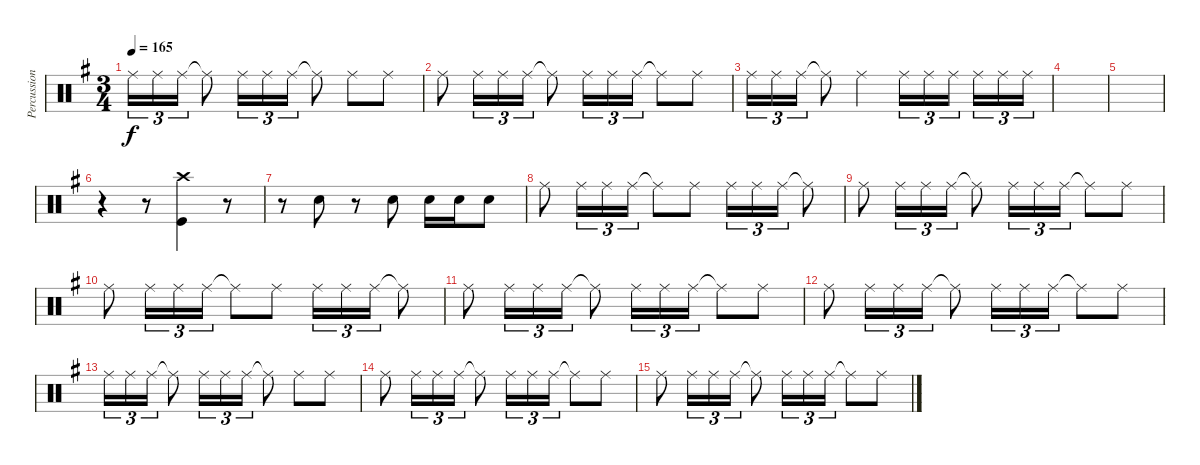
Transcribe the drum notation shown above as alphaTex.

\track ("Percussion" "Percussion") {instrument percussion}
\staff {score}
\articulation defaults
\ts (3 4)
\tempo 165
\clef neutral
\ks g "Ride (middle)".16{tu (3 2) dy f} "Ride (middle)".16{tu (3 2)} "Ride (middle)".16{tu (3 2)} "Ride (middle)"{t}.8 "Ride (middle)".16{tu (3 2)} "Ride (middle)".16{tu (3 2)} "Ride (middle)".16{tu (3 2)} "Ride (middle)"{t}.8 "Ride (middle)".8 "Ride (middle)".8
|
"Ride (middle)".8 "Ride (middle)".16{tu (3 2)} "Ride (middle)".16{tu (3 2)} "Ride (middle)".16{tu (3 2)} "Ride (middle)"{t}.8 "Ride (middle)".16{tu (3 2)} "Ride (middle)".16{tu (3 2)} "Ride (middle)".16{tu (3 2)} "Ride (middle)"{t}.8 "Ride (middle)".8 |
"Ride (middle)".16{tu (3 2)} "Ride (middle)".16{tu (3 2)} "Ride (middle)".16{tu (3 2)} "Ride (middle)"{t}.8 "Ride (middle)".4 "Ride (middle)".16{tu (3 2)} "Ride (middle)".16{tu (3 2)} "Ride (middle)".16{tu (3 2) beam splitsecondary} "Ride (middle)".16{tu (3 2)} "Ride (middle)".16{tu (3 2)} "Ride (middle)".16{tu (3 2)} |
|
|
r.4 r.8 ("Crash high (hit)" "Kick (hit)").4 r.8 |
r.8 "Snare (hit) 2".8 r.8 "Snare (hit) 2".8 "Snare (hit) 2".16 "Snare (hit) 2".16 "Snare (hit) 2".8 |
"Ride (middle)".8 "Ride (middle)".16{tu (3 2)} "Ride (middle)".16{tu (3 2)} "Ride (middle)".16{tu (3 2)} "Ride (middle)"{t}.8 "Ride (middle)".8 "Ride (middle)".16{tu (3 2)} "Ride (middle)".16{tu (3 2)} "Ride (middle)".16{tu (3 2)} "Ride (middle)"{t}.8 |
"Ride (middle)".8 "Ride (middle)".16{tu (3 2)} "Ride (middle)".16{tu (3 2)} "Ride (middle)".16{tu (3 2)} "Ride (middle)"{t}.8 "Ride (middle)".16{tu (3 2)} "Ride (middle)".16{tu (3 2)} "Ride (middle)".16{tu (3 2)} "Ride (middle)"{t}.8 "Ride (middle)".8 |
"Ride (middle)".8 "Ride (middle)".16{tu (3 2)} "Ride (middle)".16{tu (3 2)} "Ride (middle)".16{tu (3 2)} "Ride (middle)"{t}.8 "Ride (middle)".8 "Ride (middle)".16{tu (3 2)} "Ride (middle)".16{tu (3 2)} "Ride (middle)".16{tu (3 2)} "Ride (middle)"{t}.8 |
"Ride (middle)".8 "Ride (middle)".16{tu (3 2)} "Ride (middle)".16{tu (3 2)} "Ride (middle)".16{tu (3 2)} "Ride (middle)"{t}.8 "Ride (middle)".16{tu (3 2)} "Ride (middle)".16{tu (3 2)} "Ride (middle)".16{tu (3 2)} "Ride (middle)"{t}.8 "Ride (middle)".8 |
"Ride (middle)".8 "Ride (middle)".16{tu (3 2)} "Ride (middle)".16{tu (3 2)} "Ride (middle)".16{tu (3 2)} "Ride (middle)"{t}.8 "Ride (middle)".16{tu (3 2)} "Ride (middle)".16{tu (3 2)} "Ride (middle)".16{tu (3 2)} "Ride (middle)"{t}.8 "Ride (middle)".8 |
"Ride (middle)".16{tu (3 2)} "Ride (middle)".16{tu (3 2)} "Ride (middle)".16{tu (3 2)} "Ride (middle)"{t}.8 "Ride (middle)".16{tu (3 2)} "Ride (middle)".16{tu (3 2)} "Ride (middle)".16{tu (3 2)} "Ride (middle)"{t}.8 "Ride (middle)".8 "Ride (middle)".8 |
"Ride (middle)".8 "Ride (middle)".16{tu (3 2)} "Ride (middle)".16{tu (3 2)} "Ride (middle)".16{tu (3 2)} "Ride (middle)"{t}.8 "Ride (middle)".16{tu (3 2)} "Ride (middle)".16{tu (3 2)} "Ride (middle)".16{tu (3 2)} "Ride (middle)"{t}.8 "Ride (middle)".8 |
"Ride (middle)".8 "Ride (middle)".16{tu (3 2)} "Ride (middle)".16{tu (3 2)} "Ride (middle)".16{tu (3 2)} "Ride (middle)"{t}.8 "Ride (middle)".16{tu (3 2)} "Ride (middle)".16{tu (3 2)} "Ride (middle)".16{tu (3 2)} "Ride (middle)"{t}.8 "Ride (middle)".8
